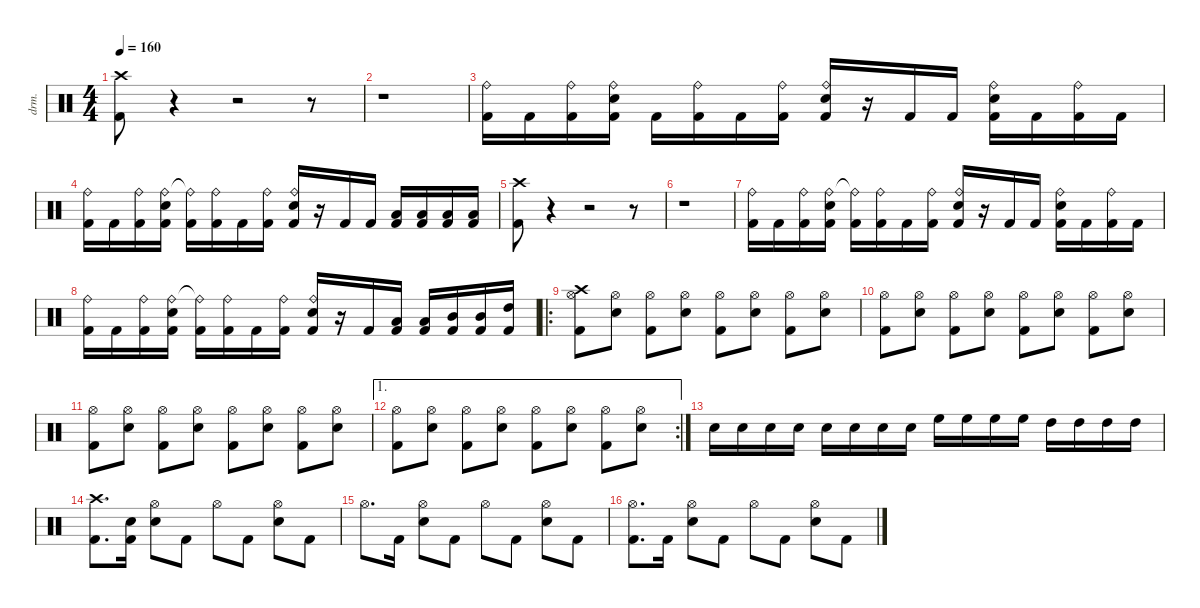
\defaultSystemsLayout 4
\hideDynamics
\bracketExtendMode nobrackets
\track ("Menza" "drm.") {instrument percussion}
\staff {score}
\articulation defaults
\ts (4 4)
\tempo 160
\clef neutral
\ks c
("Crash high (hit)" "Kick (hit) 2").8{dy f} r.4 r.2 r.8 |
r.1 |
("Ride (bell)" "Kick (hit) 2").16 "Kick (hit) 2".16 ("Ride (bell)" "Kick (hit) 2").16 ("Ride (bell)" "Snare (hit) 2" "Kick (hit) 2").16 "Kick (hit) 2".16 ("Ride (bell)" "Kick (hit) 2").16 "Kick (hit) 2".16 ("Ride (bell)" "Kick (hit) 2").16 ("Ride (bell)" "Snare (hit) 2" "Kick (hit) 2").16 r.16 "Kick (hit) 2".16 "Kick (hit) 2".16 ("Ride (bell)" "Snare (hit) 2" "Kick (hit) 2").16 "Kick (hit) 2".16 ("Ride (bell)" "Kick (hit) 2").16 "Kick (hit) 2".16 |
("Ride (bell)" "Kick (hit) 2").16 "Kick (hit) 2".16 ("Ride (bell)" "Kick (hit) 2").16 ("Ride (bell)" "Snare (hit) 2" "Kick (hit) 2").16 ("Ride (bell)"{t} "Kick (hit) 2").16 ("Ride (bell)" "Kick (hit) 2").16 "Kick (hit) 2".16 ("Ride (bell)" "Kick (hit) 2").16 ("Ride (bell)" "Snare (hit) 2" "Kick (hit) 2").16 r.16 "Kick (hit) 2".16 "Kick (hit) 2".16 ("Low Tom (hit)" "Kick (hit) 2").16 ("Low Tom (hit)" "Kick (hit) 2").16 ("Low Tom (hit)" "Kick (hit) 2").16 ("Low Tom (hit)" "Kick (hit) 2").16 |
("Crash high (hit)" "Kick (hit) 2").8 r.4 r.2 r.8 |
r.1 |
("Ride (bell)" "Kick (hit) 2").16 "Kick (hit) 2".16 ("Ride (bell)" "Kick (hit) 2").16 ("Ride (bell)" "Snare (hit) 2" "Kick (hit) 2").16 ("Ride (bell)"{t} "Kick (hit) 2").16 ("Ride (bell)" "Kick (hit) 2").16 "Kick (hit) 2".16 ("Ride (bell)" "Kick (hit) 2").16 ("Ride (bell)" "Snare (hit) 2" "Kick (hit) 2").16 r.16 "Kick (hit) 2".16 "Kick (hit) 2".16 ("Ride (bell)" "Snare (hit) 2" "Kick (hit) 2").16 "Kick (hit) 2".16 ("Ride (bell)" "Kick (hit) 2").16 "Kick (hit) 2".16 |
("Ride (bell)" "Kick (hit) 2").16 "Kick (hit) 2".16 ("Ride (bell)" "Kick (hit) 2").16 ("Ride (bell)" "Snare (hit) 2" "Kick (hit) 2").16 ("Ride (bell)"{t} "Kick (hit) 2").16 ("Ride (bell)" "Kick (hit) 2").16 "Kick (hit) 2".16 ("Ride (bell)" "Kick (hit) 2").16 ("Ride (bell)" "Snare (hit) 2" "Kick (hit) 2").16 r.16 "Kick (hit) 2".16 ("Low Tom (hit)" "Kick (hit) 2").16 ("Low Tom (hit)" "Kick (hit) 2").16 ("Mid Tom (hit)" "Kick (hit) 2").16 ("Mid Tom (hit)" "Kick (hit) 2").16 ("High Tom (hit)" "Kick (hit) 2").16 |
\ro
("Crash high (hit)" "Hi-Hat (open)" "Kick (hit) 2").8 ("Hi-Hat (open)" "Snare (hit) 2").8 ("Hi-Hat (open)" "Kick (hit) 2").8 ("Hi-Hat (open)" "Snare (hit) 2").8 ("Hi-Hat (open)" "Kick (hit) 2").8 ("Hi-Hat (open)" "Snare (hit) 2").8 ("Hi-Hat (open)" "Kick (hit) 2").8 ("Hi-Hat (open)" "Snare (hit) 2").8 |
("Hi-Hat (open)" "Kick (hit) 2").8 ("Hi-Hat (open)" "Snare (hit) 2").8 ("Hi-Hat (open)" "Kick (hit) 2").8 ("Hi-Hat (open)" "Snare (hit) 2").8 ("Hi-Hat (open)" "Kick (hit) 2").8 ("Hi-Hat (open)" "Snare (hit) 2").8 ("Hi-Hat (open)" "Kick (hit) 2").8 ("Hi-Hat (open)" "Snare (hit) 2").8 |
("Hi-Hat (open)" "Kick (hit) 2").8 ("Hi-Hat (open)" "Snare (hit) 2").8 ("Hi-Hat (open)" "Kick (hit) 2").8 ("Hi-Hat (open)" "Snare (hit) 2").8 ("Hi-Hat (open)" "Kick (hit) 2").8 ("Hi-Hat (open)" "Snare (hit) 2").8 ("Hi-Hat (open)" "Kick (hit) 2").8 ("Hi-Hat (open)" "Snare (hit) 2").8 |
\ae 1
\rc 2
("Hi-Hat (open)" "Kick (hit) 2").8 ("Hi-Hat (open)" "Snare (hit) 2").8 ("Hi-Hat (open)" "Kick (hit) 2").8 ("Hi-Hat (open)" "Snare (hit) 2").8 ("Hi-Hat (open)" "Kick (hit) 2").8 ("Hi-Hat (open)" "Snare (hit) 2").8 ("Hi-Hat (open)" "Kick (hit) 2").8 ("Hi-Hat (open)" "Snare (hit) 2").8 |
"Snare (hit) 2".16 "Snare (hit) 2".16 "Snare (hit) 2".16 "Snare (hit) 2".16 "Snare (hit) 2".16 "Snare (hit) 2".16 "Snare (hit) 2".16 "Snare (hit) 2".16 "High Floor Tom (hit)".16 "High Floor Tom (hit)".16 "High Floor Tom (hit)".16 "High Floor Tom (hit)".16 "High Tom (hit)".16 "High Tom (hit)".16 "High Tom (hit)".16 "High Tom (hit)".16 |
("Crash high (hit)" "Kick (hit) 2").8{d} ("Snare (hit) 2" "Kick (hit) 2").16 ("Hi-Hat (open)" "Snare (hit) 2").8 "Kick (hit) 2".8 "Hi-Hat (open)".8 "Kick (hit) 2".8 ("Hi-Hat (open)" "Snare (hit) 2").8 "Kick (hit) 2".8 |
"Hi-Hat (open)".8{d} "Kick (hit) 2".16 ("Hi-Hat (open)" "Snare (hit) 2").8 "Kick (hit) 2".8 "Hi-Hat (open)".8 "Kick (hit) 2".8 ("Hi-Hat (open)" "Snare (hit) 2").8 "Kick (hit) 2".8 |
("Hi-Hat (open)" "Kick (hit) 2").8{d} "Kick (hit) 2".16 ("Hi-Hat (open)" "Snare (hit) 2").8 "Kick (hit) 2".8 "Hi-Hat (open)".8 "Kick (hit) 2".8 ("Hi-Hat (open)" "Snare (hit) 2").8 "Kick (hit) 2".8
